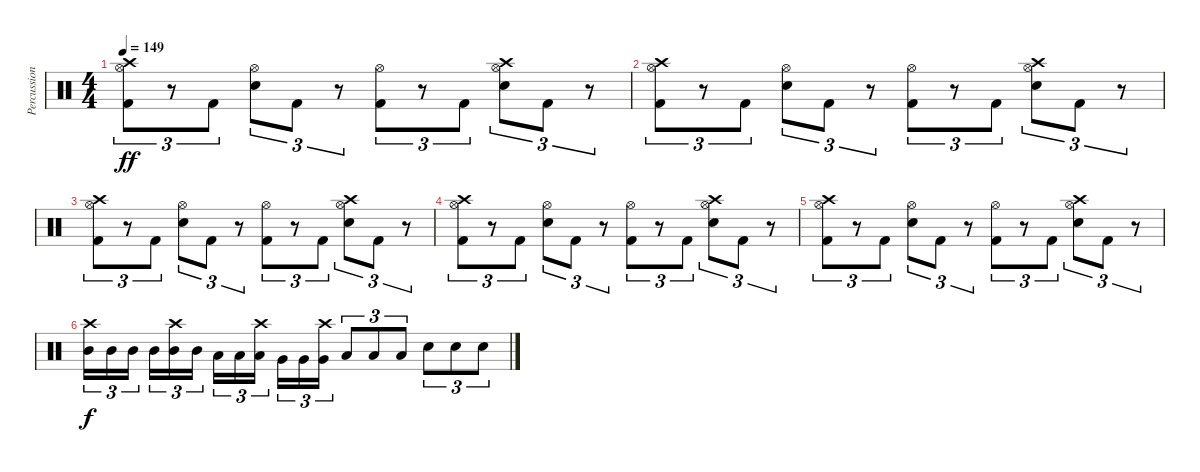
\track ("Percussion" "Percussion") {instrument percussion}
\staff {score}
\articulation defaults
\ts (4 4)
\tempo 149
\clef neutral
\ks c
("Kick (hit) 2" "Hi-Hat (open)" "Crash high (hit)").8{tu (3 2) dy ff} r.8{tu (3 2)} "Kick (hit) 2".8{tu (3 2)} ("Electric Snare (hit)" "Hi-Hat (open)").8{tu (3 2)} "Kick (hit) 2".8{tu (3 2)} r.8{tu (3 2)} ("Kick (hit) 2" "Hi-Hat (open)").8{tu (3 2)} r.8{tu (3 2)} "Kick (hit) 2".8{tu (3 2)} ("Electric Snare (hit)" "Hi-Hat (open)" "Crash high (hit)").8{tu (3 2)} "Kick (hit) 2".8{tu (3 2)} r.8{tu (3 2)} |
("Kick (hit) 2" "Hi-Hat (open)" "Crash high (hit)").8{tu (3 2)} r.8{tu (3 2)} "Kick (hit) 2".8{tu (3 2)} ("Snare (hit) 2" "Hi-Hat (open)").8{tu (3 2)} "Kick (hit) 2".8{tu (3 2)} r.8{tu (3 2)} ("Kick (hit) 2" "Hi-Hat (open)").8{tu (3 2)} r.8{tu (3 2)} "Kick (hit) 2".8{tu (3 2)} ("Snare (hit) 2" "Hi-Hat (open)" "Crash high (hit)").8{tu (3 2)} "Kick (hit) 2".8{tu (3 2)} r.8{tu (3 2)} |
("Kick (hit) 2" "Hi-Hat (open)" "Crash high (hit)").8{tu (3 2)} r.8{tu (3 2)} "Kick (hit) 2".8{tu (3 2)} ("Snare (hit) 2" "Hi-Hat (open)").8{tu (3 2)} "Kick (hit) 2".8{tu (3 2)} r.8{tu (3 2)} ("Kick (hit) 2" "Hi-Hat (open)").8{tu (3 2)} r.8{tu (3 2)} "Kick (hit) 2".8{tu (3 2)} ("Snare (hit) 2" "Hi-Hat (open)" "Crash high (hit)").8{tu (3 2)} "Kick (hit) 2".8{tu (3 2)} r.8{tu (3 2)} |
("Kick (hit) 2" "Hi-Hat (open)" "Crash high (hit)").8{tu (3 2)} r.8{tu (3 2)} "Kick (hit) 2".8{tu (3 2)} ("Snare (hit) 2" "Hi-Hat (open)").8{tu (3 2)} "Kick (hit) 2".8{tu (3 2)} r.8{tu (3 2)} ("Kick (hit) 2" "Hi-Hat (open)").8{tu (3 2)} r.8{tu (3 2)} "Kick (hit) 2".8{tu (3 2)} ("Snare (hit) 2" "Hi-Hat (open)" "Crash high (hit)").8{tu (3 2)} "Kick (hit) 2".8{tu (3 2)} r.8{tu (3 2)} |
("Kick (hit) 2" "Hi-Hat (open)" "Crash high (hit)").8{tu (3 2)} r.8{tu (3 2)} "Kick (hit) 2".8{tu (3 2)} ("Snare (hit) 2" "Hi-Hat (open)").8{tu (3 2)} "Kick (hit) 2".8{tu (3 2)} r.8{tu (3 2)} ("Kick (hit) 2" "Hi-Hat (open)").8{tu (3 2)} r.8{tu (3 2)} "Kick (hit) 2".8{tu (3 2)} ("Snare (hit) 2" "Hi-Hat (open)" "Crash high (hit)").8{tu (3 2)} "Kick (hit) 2".8{tu (3 2)} r.8{tu (3 2)} |
("Mid Tom (hit)" "Crash high (hit)").16{tu (3 2) dy f} "Mid Tom (hit)".16{tu (3 2)} "Mid Tom (hit)".16{tu (3 2) beam splitsecondary} "Mid Tom (hit)".16{tu (3 2)} ("Mid Tom (hit)" "Crash high (hit)").16{tu (3 2)} "Mid Tom (hit)".16{tu (3 2)} "Low Tom (hit)".16{tu (3 2)} "Low Tom (hit)".16{tu (3 2)} ("Low Tom (hit)" "Crash high (hit)").16{tu (3 2) beam splitsecondary} "Very Low Tom (hit)".16{tu (3 2)} "Very Low Tom (hit)".16{tu (3 2)} ("Very Low Tom (hit)" "Crash high (hit)").16{tu (3 2)} "Low Tom (hit)".8{tu (3 2)} "Low Tom (hit)".8{tu (3 2)} "Low Tom (hit)".8{tu (3 2)} "Electric Snare (hit)".8{tu (3 2)} "Electric Snare (hit)".8{tu (3 2)} "Electric Snare (hit)".8{tu (3 2)}
